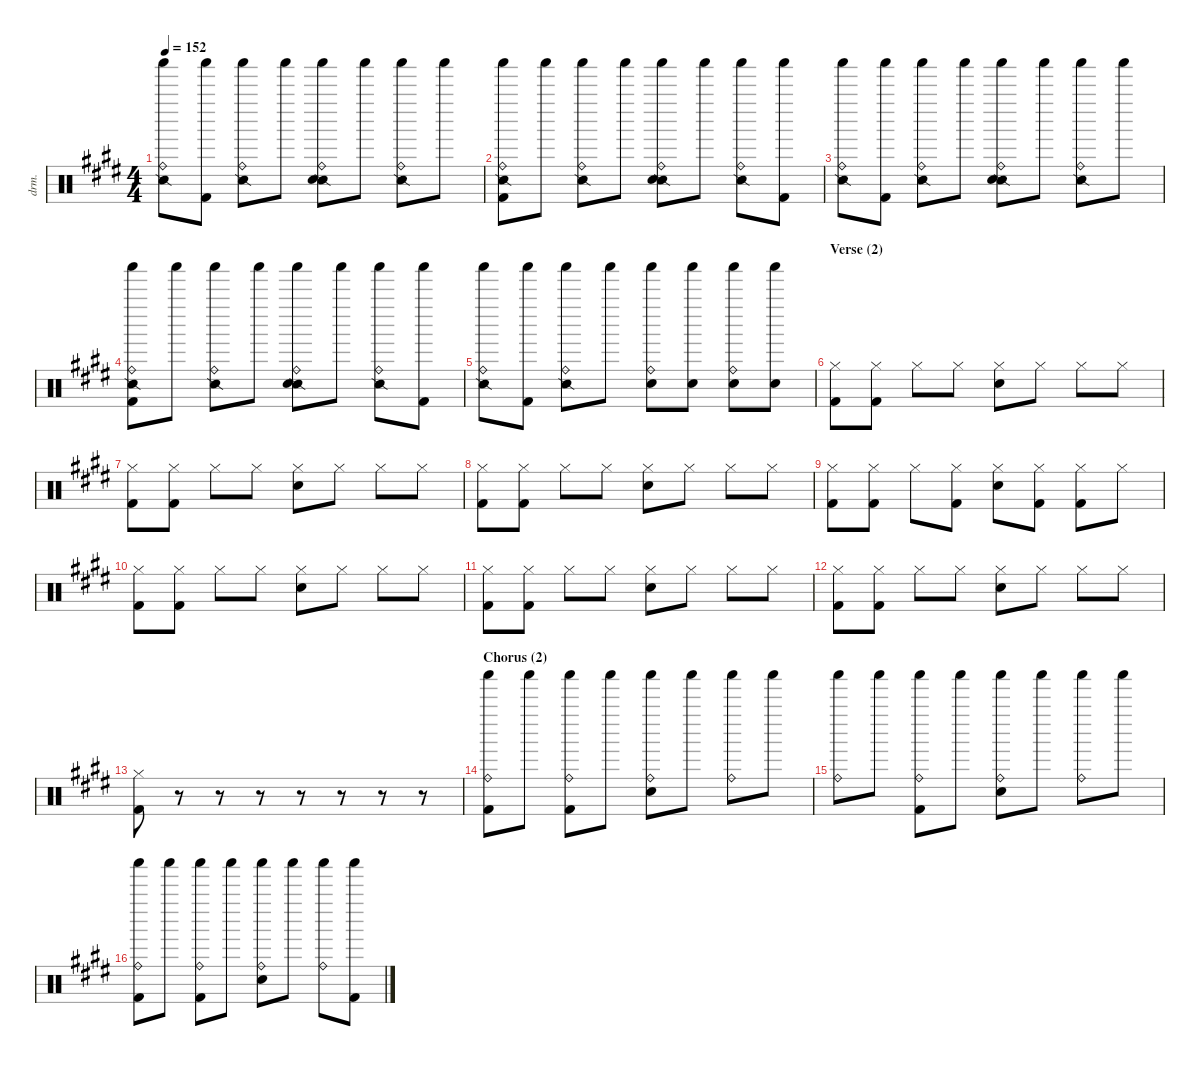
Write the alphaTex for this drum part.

\defaultSystemsLayout 4
\hideDynamics
\bracketExtendMode nobrackets
\otherSystemsTrackNameOrientation horizontal
\track ("Drums" "drm.") {instrument percussion}
\staff {score}
\articulation defaults
\ts (4 4)
\tempo 152
\clef neutral
\ks c#minor
("Snare (side stick) 2"{acc forcenatural} "Ride (bell)"{acc forcenatural} "Shaker (hit)"{acc forcenatural}).8{dy f} ("Shaker (hit)"{acc forcenatural} "Kick (hit) 2"{acc forcenatural}).8 ("Snare (side stick) 2"{acc forcenatural} "Ride (bell)"{acc forcenatural} "Shaker (hit)"{acc forcenatural}).8 "Shaker (hit)"{acc forcenatural}.8 ("Snare (side stick) 2"{acc forcenatural} "Ride (bell)"{acc forcenatural} "Snare (hit) 2"{acc forcenatural} "Shaker (hit)"{acc forcenatural}).8 "Shaker (hit)"{acc forcenatural}.8 ("Snare (side stick) 2"{acc forcenatural} "Ride (bell)"{acc forcenatural} "Shaker (hit)"{acc forcenatural}).8 "Shaker (hit)"{acc forcenatural}.8 |
("Snare (side stick) 2"{acc forcenatural} "Ride (bell)"{acc forcenatural} "Kick (hit) 2"{acc forcenatural} "Shaker (hit)"{acc forcenatural}).8 "Shaker (hit)"{acc forcenatural}.8 ("Snare (side stick) 2"{acc forcenatural} "Ride (bell)"{acc forcenatural} "Shaker (hit)"{acc forcenatural}).8 "Shaker (hit)"{acc forcenatural}.8 ("Snare (side stick) 2"{acc forcenatural} "Ride (bell)"{acc forcenatural} "Snare (hit) 2"{acc forcenatural} "Shaker (hit)"{acc forcenatural}).8 "Shaker (hit)"{acc forcenatural}.8 ("Snare (side stick) 2"{acc forcenatural} "Ride (bell)"{acc forcenatural} "Shaker (hit)"{acc forcenatural}).8 ("Kick (hit) 2"{acc forcenatural} "Shaker (hit)"{acc forcenatural}).8 |
("Snare (side stick) 2"{acc forcenatural} "Ride (bell)"{acc forcenatural} "Shaker (hit)"{acc forcenatural}).8 ("Shaker (hit)"{acc forcenatural} "Kick (hit) 2"{acc forcenatural}).8 ("Snare (side stick) 2"{acc forcenatural} "Ride (bell)"{acc forcenatural} "Shaker (hit)"{acc forcenatural}).8 "Shaker (hit)"{acc forcenatural}.8 ("Snare (side stick) 2"{acc forcenatural} "Ride (bell)"{acc forcenatural} "Snare (hit) 2"{acc forcenatural} "Shaker (hit)"{acc forcenatural}).8 "Shaker (hit)"{acc forcenatural}.8 ("Snare (side stick) 2"{acc forcenatural} "Ride (bell)"{acc forcenatural} "Shaker (hit)"{acc forcenatural}).8 "Shaker (hit)"{acc forcenatural}.8 |
("Snare (side stick) 2"{acc forcenatural} "Ride (bell)"{acc forcenatural} "Kick (hit) 2"{acc forcenatural} "Shaker (hit)"{acc forcenatural}).8 "Shaker (hit)"{acc forcenatural}.8 ("Snare (side stick) 2"{acc forcenatural} "Ride (bell)"{acc forcenatural} "Shaker (hit)"{acc forcenatural}).8 "Shaker (hit)"{acc forcenatural}.8 ("Snare (side stick) 2"{acc forcenatural} "Ride (bell)"{acc forcenatural} "Snare (hit) 2"{acc forcenatural} "Shaker (hit)"{acc forcenatural}).8 "Shaker (hit)"{acc forcenatural}.8 ("Snare (side stick) 2"{acc forcenatural} "Ride (bell)"{acc forcenatural} "Shaker (hit)"{acc forcenatural}).8 ("Kick (hit) 2"{acc forcenatural} "Shaker (hit)"{acc forcenatural}).8 |
("Snare (side stick) 2"{acc forcenatural} "Ride (bell)"{acc forcenatural} "Shaker (hit)"{acc forcenatural}).8 ("Shaker (hit)"{acc forcenatural} "Kick (hit) 2"{acc forcenatural}).8 ("Snare (side stick) 2"{acc forcenatural} "Ride (bell)"{acc forcenatural} "Shaker (hit)"{acc forcenatural}).8 "Shaker (hit)"{acc forcenatural}.8 ("Ride (bell)"{acc forcenatural} "Snare (hit) 2"{acc forcenatural} "Shaker (hit)"{acc forcenatural}).8 ("Snare (hit) 2"{acc forcenatural} "Shaker (hit)"{acc forcenatural}).8 ("Snare (hit) 2"{acc forcenatural} "Ride (bell)"{acc forcenatural} "Shaker (hit)"{acc forcenatural}).8 ("Snare (hit) 2"{acc forcenatural} "Shaker (hit)"{acc forcenatural}).8 |
\section ("" "Verse (2)")
("Kick (hit) 2"{acc forcenatural} "Hi-Hat (closed)"{acc forcenatural}).8 ("Hi-Hat (closed)"{acc forcenatural} "Kick (hit) 2"{acc forcenatural}).8 "Hi-Hat (closed)"{acc forcenatural}.8 "Hi-Hat (closed)"{acc forcenatural}.8 ("Snare (hit) 2"{acc forcenatural} "Hi-Hat (closed)"{acc forcenatural}).8 "Hi-Hat (closed)"{acc forcenatural}.8 "Hi-Hat (closed)"{acc forcenatural}.8 "Hi-Hat (closed)"{acc forcenatural}.8 |
("Kick (hit) 2"{acc forcenatural} "Hi-Hat (closed)"{acc forcenatural}).8 ("Hi-Hat (closed)"{acc forcenatural} "Kick (hit) 2"{acc forcenatural}).8 "Hi-Hat (closed)"{acc forcenatural}.8 "Hi-Hat (closed)"{acc forcenatural}.8 ("Snare (hit) 2"{acc forcenatural} "Hi-Hat (closed)"{acc forcenatural}).8 "Hi-Hat (closed)"{acc forcenatural}.8 "Hi-Hat (closed)"{acc forcenatural}.8 "Hi-Hat (closed)"{acc forcenatural}.8 |
("Kick (hit) 2"{acc forcenatural} "Hi-Hat (closed)"{acc forcenatural}).8 ("Hi-Hat (closed)"{acc forcenatural} "Kick (hit) 2"{acc forcenatural}).8 "Hi-Hat (closed)"{acc forcenatural}.8 "Hi-Hat (closed)"{acc forcenatural}.8 ("Snare (hit) 2"{acc forcenatural} "Hi-Hat (closed)"{acc forcenatural}).8 "Hi-Hat (closed)"{acc forcenatural}.8 "Hi-Hat (closed)"{acc forcenatural}.8 "Hi-Hat (closed)"{acc forcenatural}.8 |
("Kick (hit) 2"{acc forcenatural} "Hi-Hat (closed)"{acc forcenatural}).8 ("Hi-Hat (closed)"{acc forcenatural} "Kick (hit) 2"{acc forcenatural}).8 "Hi-Hat (closed)"{acc forcenatural}.8 ("Kick (hit) 2"{acc forcenatural} "Hi-Hat (closed)"{acc forcenatural}).8 ("Snare (hit) 2"{acc forcenatural} "Hi-Hat (closed)"{acc forcenatural}).8 ("Kick (hit) 2"{acc forcenatural} "Hi-Hat (closed)"{acc forcenatural}).8 ("Kick (hit) 2"{acc forcenatural} "Hi-Hat (closed)"{acc forcenatural}).8 "Hi-Hat (closed)"{acc forcenatural}.8 |
("Kick (hit) 2"{acc forcenatural} "Hi-Hat (closed)"{acc forcenatural}).8 ("Hi-Hat (closed)"{acc forcenatural} "Kick (hit) 2"{acc forcenatural}).8 "Hi-Hat (closed)"{acc forcenatural}.8 "Hi-Hat (closed)"{acc forcenatural}.8 ("Snare (hit) 2"{acc forcenatural} "Hi-Hat (closed)"{acc forcenatural}).8 "Hi-Hat (closed)"{acc forcenatural}.8 "Hi-Hat (closed)"{acc forcenatural}.8 "Hi-Hat (closed)"{acc forcenatural}.8 |
("Kick (hit) 2"{acc forcenatural} "Hi-Hat (closed)"{acc forcenatural}).8 ("Hi-Hat (closed)"{acc forcenatural} "Kick (hit) 2"{acc forcenatural}).8 "Hi-Hat (closed)"{acc forcenatural}.8 "Hi-Hat (closed)"{acc forcenatural}.8 ("Snare (hit) 2"{acc forcenatural} "Hi-Hat (closed)"{acc forcenatural}).8 "Hi-Hat (closed)"{acc forcenatural}.8 "Hi-Hat (closed)"{acc forcenatural}.8 "Hi-Hat (closed)"{acc forcenatural}.8 |
("Kick (hit) 2"{acc forcenatural} "Hi-Hat (closed)"{acc forcenatural}).8 ("Hi-Hat (closed)"{acc forcenatural} "Kick (hit) 2"{acc forcenatural}).8 "Hi-Hat (closed)"{acc forcenatural}.8 "Hi-Hat (closed)"{acc forcenatural}.8 ("Snare (hit) 2"{acc forcenatural} "Hi-Hat (closed)"{acc forcenatural}).8 "Hi-Hat (closed)"{acc forcenatural}.8 "Hi-Hat (closed)"{acc forcenatural}.8 "Hi-Hat (closed)"{acc forcenatural}.8 |
("Kick (hit) 2"{acc forcenatural} "Hi-Hat (closed)"{acc forcenatural}).8 r.8 r.8 r.8 r.8 r.8 r.8 r.8 |
\section ("" "Chorus (2)")
("Ride (bell)"{acc forcenatural} "Kick (hit) 2"{acc forcenatural} "Shaker (hit)"{acc forcenatural}).8 "Shaker (hit)"{acc forcenatural}.8 ("Ride (bell)"{acc forcenatural} "Kick (hit) 2"{acc forcenatural} "Shaker (hit)"{acc forcenatural}).8 "Shaker (hit)"{acc forcenatural}.8 ("Ride (bell)"{acc forcenatural} "Snare (hit) 2"{acc forcenatural} "Shaker (hit)"{acc forcenatural}).8 "Shaker (hit)"{acc forcenatural}.8 ("Ride (bell)"{acc forcenatural} "Shaker (hit)"{acc forcenatural}).8 "Shaker (hit)"{acc forcenatural}.8 |
("Ride (bell)"{acc forcenatural} "Shaker (hit)"{acc forcenatural}).8 "Shaker (hit)"{acc forcenatural}.8 ("Ride (bell)"{acc forcenatural} "Kick (hit) 2"{acc forcenatural} "Shaker (hit)"{acc forcenatural}).8 "Shaker (hit)"{acc forcenatural}.8 ("Ride (bell)"{acc forcenatural} "Snare (hit) 2"{acc forcenatural} "Shaker (hit)"{acc forcenatural}).8 "Shaker (hit)"{acc forcenatural}.8 ("Ride (bell)"{acc forcenatural} "Shaker (hit)"{acc forcenatural}).8 "Shaker (hit)"{acc forcenatural}.8 |
("Ride (bell)"{acc forcenatural} "Kick (hit) 2"{acc forcenatural} "Shaker (hit)"{acc forcenatural}).8 "Shaker (hit)"{acc forcenatural}.8 ("Ride (bell)"{acc forcenatural} "Kick (hit) 2"{acc forcenatural} "Shaker (hit)"{acc forcenatural}).8 "Shaker (hit)"{acc forcenatural}.8 ("Ride (bell)"{acc forcenatural} "Snare (hit) 2"{acc forcenatural} "Shaker (hit)"{acc forcenatural}).8 "Shaker (hit)"{acc forcenatural}.8 ("Ride (bell)"{acc forcenatural} "Shaker (hit)"{acc forcenatural}).8 ("Kick (hit) 2"{acc forcenatural} "Shaker (hit)"{acc forcenatural}).8
